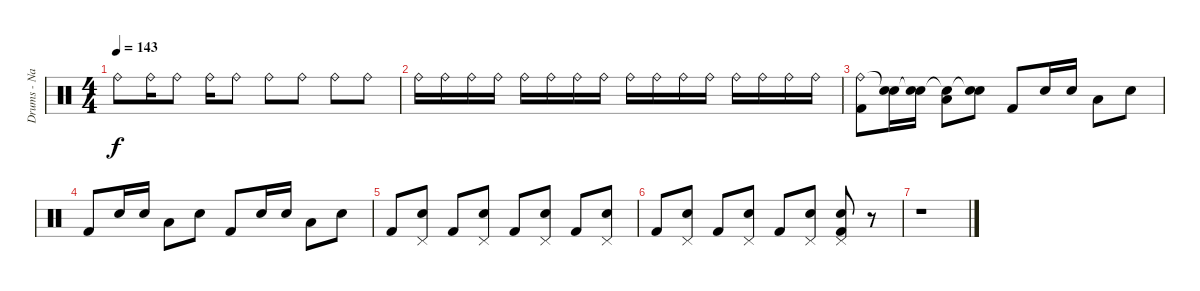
\track ("Drums - Naffah" "Drums - Na") {instrument percussion}
\staff {score}
\articulation defaults
\ts (4 4)
\tempo 143
\clef neutral
\ks c "Ride (bell)".8{dy f} "Ride (bell)".16 "Ride (bell)".8 "Ride (bell)".16 "Ride (bell)".8 "Ride (bell)".8 "Ride (bell)".8 "Ride (bell)".8 "Ride (bell)".8
|
"Ride (bell)".16 "Ride (bell)".16 "Ride (bell)".16 "Ride (bell)".16 "Ride (bell)".16 "Ride (bell)".16 "Ride (bell)".16 "Ride (bell)".16 "Ride (bell)".16 "Ride (bell)".16 "Ride (bell)".16 "Ride (bell)".16 "Ride (bell)".16 "Ride (bell)".16 "Ride (bell)".16 "Ride (bell)".16 |
("Ride (bell)" "Kick (hit) 2").8 ("Snare (hit)"{t} "Snare (hit) 2").16 ("Snare (hit)"{t} "Snare (hit) 2").16 ("Snare (hit)"{t} "Low Floor Tom (hit)").8 ("Snare (hit)"{t} "Snare (hit) 2").8 "Kick (hit) 2".8 "Snare (hit) 2".16 "Snare (hit) 2".16 "Low Floor Tom (hit)".8 "Snare (hit) 2".8 |
"Kick (hit) 2".8 "Snare (hit) 2".16 "Snare (hit) 2".16 "Low Floor Tom (hit)".8 "Snare (hit) 2".8 "Kick (hit) 2".8 "Snare (hit) 2".16 "Snare (hit) 2".16 "Low Floor Tom (hit)".8 "Snare (hit) 2".8 |
"Kick (hit) 2".8 ("Pedal Hi-Hat (hit)" "Snare (hit) 2").8 "Kick (hit) 2".8 ("Pedal Hi-Hat (hit)" "Snare (hit) 2").8 "Kick (hit) 2".8 ("Pedal Hi-Hat (hit)" "Snare (hit) 2").8 "Kick (hit) 2".8 ("Pedal Hi-Hat (hit)" "Snare (hit) 2").8 |
"Kick (hit) 2".8 ("Pedal Hi-Hat (hit)" "Snare (hit) 2").8 "Kick (hit) 2".8 ("Pedal Hi-Hat (hit)" "Snare (hit) 2").8 "Kick (hit) 2".8 ("Pedal Hi-Hat (hit)" "Snare (hit) 2").8 ("Pedal Hi-Hat (hit)" "Snare (hit) 2" "Kick (hit) 2").8 r.8 |
r.1
